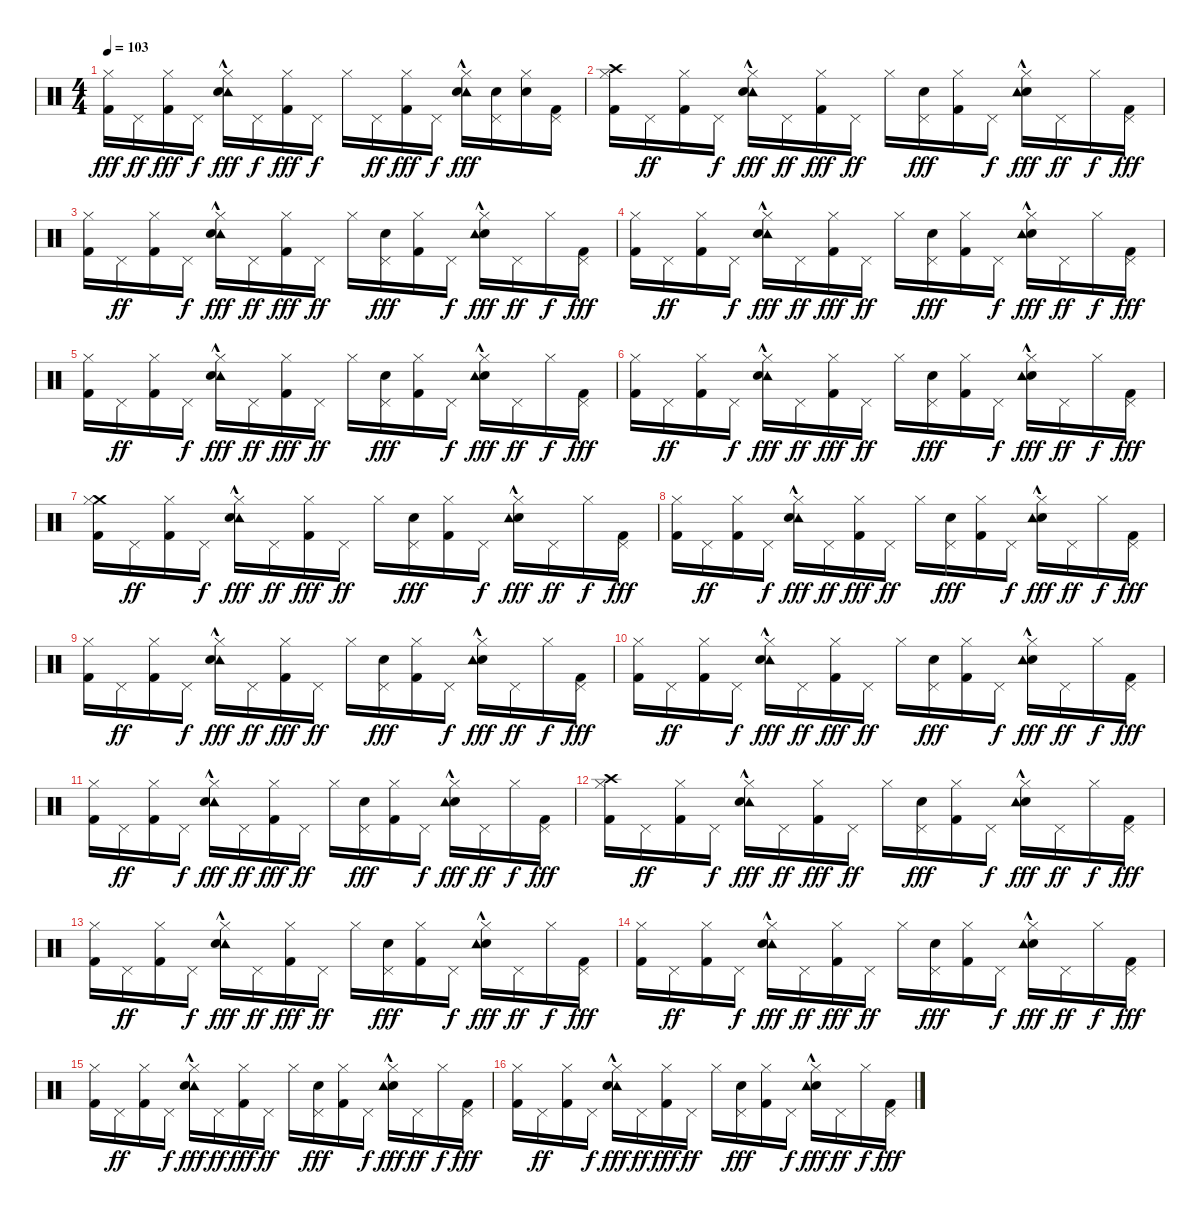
\track "" {instrument percussion}
\staff {score}
\articulation defaults
\ts (4 4)
\tempo 103
\clef neutral
\ks c
("Hi-Hat (closed)" "Kick (hit) 2").16{dy fff} "Pedal Hi-Hat (hit)".16{dy ff} ("Hi-Hat (closed)" "Kick (hit) 2").16{dy fff} "Pedal Hi-Hat (hit)".16{dy f} ("Tambourine (hit)"{hac} "Hi-Hat (closed)" "Electric Snare (hit)").16{dy fff} "Pedal Hi-Hat (hit)".16{dy f} ("Kick (hit) 2" "Hi-Hat (closed)").16{dy fff} "Pedal Hi-Hat (hit)".16{dy f} "Hi-Hat (closed)".16 "Pedal Hi-Hat (hit)".16{dy ff} ("Kick (hit) 2" "Hi-Hat (closed)").16{dy fff} "Pedal Hi-Hat (hit)".16{dy f} ("Tambourine (hit)"{hac} "Electric Snare (hit)" "Hi-Hat (closed)").16{dy fff} ("Pedal Hi-Hat (hit)" "Electric Snare (hit)").16 ("Hi-Hat (closed)" "Electric Snare (hit)").16 ("Kick (hit) 2" "Pedal Hi-Hat (hit)").16 |
("Crash high (hit)" "Kick (hit) 2" "Hi-Hat (closed)").16 "Pedal Hi-Hat (hit)".16{dy ff} ("Kick (hit) 2" "Hi-Hat (closed)").16 "Pedal Hi-Hat (hit)".16{dy f} ("Tambourine (hit)"{hac} "Hi-Hat (closed)" "Electric Snare (hit)").16{dy fff} "Pedal Hi-Hat (hit)".16{dy ff} ("Hi-Hat (closed)" "Kick (hit) 2").16{dy fff} "Pedal Hi-Hat (hit)".16{dy ff} "Hi-Hat (closed)".16 ("Pedal Hi-Hat (hit)" "Electric Snare (hit)").16{dy fff} ("Kick (hit) 2" "Hi-Hat (closed)").16 "Pedal Hi-Hat (hit)".16{dy f} ("Electric Snare (hit)" "Hi-Hat (closed)" "Tambourine (hit)"{hac}).16{dy fff} "Pedal Hi-Hat (hit)".16{dy ff} "Hi-Hat (closed)".16{dy f} ("Pedal Hi-Hat (hit)" "Kick (hit) 2").16{dy fff} |
("Kick (hit) 2" "Hi-Hat (closed)").16 "Pedal Hi-Hat (hit)".16{dy ff} ("Kick (hit) 2" "Hi-Hat (closed)").16 "Pedal Hi-Hat (hit)".16{dy f} ("Tambourine (hit)"{hac} "Hi-Hat (closed)" "Electric Snare (hit)").16{dy fff} "Pedal Hi-Hat (hit)".16{dy ff} ("Hi-Hat (closed)" "Kick (hit) 2").16{dy fff} "Pedal Hi-Hat (hit)".16{dy ff} "Hi-Hat (closed)".16 ("Pedal Hi-Hat (hit)" "Electric Snare (hit)").16{dy fff} ("Kick (hit) 2" "Hi-Hat (closed)").16 "Pedal Hi-Hat (hit)".16{dy f} ("Electric Snare (hit)" "Hi-Hat (closed)" "Tambourine (hit)"{hac}).16{dy fff} "Pedal Hi-Hat (hit)".16{dy ff} "Hi-Hat (closed)".16{dy f} ("Pedal Hi-Hat (hit)" "Kick (hit) 2").16{dy fff} |
("Kick (hit) 2" "Hi-Hat (closed)").16 "Pedal Hi-Hat (hit)".16{dy ff} ("Kick (hit) 2" "Hi-Hat (closed)").16 "Pedal Hi-Hat (hit)".16{dy f} ("Tambourine (hit)"{hac} "Hi-Hat (closed)" "Electric Snare (hit)").16{dy fff} "Pedal Hi-Hat (hit)".16{dy ff} ("Hi-Hat (closed)" "Kick (hit) 2").16{dy fff} "Pedal Hi-Hat (hit)".16{dy ff} "Hi-Hat (closed)".16 ("Pedal Hi-Hat (hit)" "Electric Snare (hit)").16{dy fff} ("Kick (hit) 2" "Hi-Hat (closed)").16 "Pedal Hi-Hat (hit)".16{dy f} ("Electric Snare (hit)" "Hi-Hat (closed)" "Tambourine (hit)"{hac}).16{dy fff} "Pedal Hi-Hat (hit)".16{dy ff} "Hi-Hat (closed)".16{dy f} ("Pedal Hi-Hat (hit)" "Kick (hit) 2").16{dy fff} |
("Kick (hit) 2" "Hi-Hat (closed)").16 "Pedal Hi-Hat (hit)".16{dy ff} ("Kick (hit) 2" "Hi-Hat (closed)").16 "Pedal Hi-Hat (hit)".16{dy f} ("Tambourine (hit)"{hac} "Hi-Hat (closed)" "Electric Snare (hit)").16{dy fff} "Pedal Hi-Hat (hit)".16{dy ff} ("Hi-Hat (closed)" "Kick (hit) 2").16{dy fff} "Pedal Hi-Hat (hit)".16{dy ff} "Hi-Hat (closed)".16 ("Pedal Hi-Hat (hit)" "Electric Snare (hit)").16{dy fff} ("Kick (hit) 2" "Hi-Hat (closed)").16 "Pedal Hi-Hat (hit)".16{dy f} ("Electric Snare (hit)" "Hi-Hat (closed)" "Tambourine (hit)"{hac}).16{dy fff} "Pedal Hi-Hat (hit)".16{dy ff} "Hi-Hat (closed)".16{dy f} ("Pedal Hi-Hat (hit)" "Kick (hit) 2").16{dy fff} |
("Kick (hit) 2" "Hi-Hat (closed)").16 "Pedal Hi-Hat (hit)".16{dy ff} ("Kick (hit) 2" "Hi-Hat (closed)").16 "Pedal Hi-Hat (hit)".16{dy f} ("Tambourine (hit)"{hac} "Hi-Hat (closed)" "Electric Snare (hit)").16{dy fff} "Pedal Hi-Hat (hit)".16{dy ff} ("Hi-Hat (closed)" "Kick (hit) 2").16{dy fff} "Pedal Hi-Hat (hit)".16{dy ff} "Hi-Hat (closed)".16 ("Pedal Hi-Hat (hit)" "Electric Snare (hit)").16{dy fff} ("Kick (hit) 2" "Hi-Hat (closed)").16 "Pedal Hi-Hat (hit)".16{dy f} ("Electric Snare (hit)" "Hi-Hat (closed)" "Tambourine (hit)"{hac}).16{dy fff} "Pedal Hi-Hat (hit)".16{dy ff} "Hi-Hat (closed)".16{dy f} ("Pedal Hi-Hat (hit)" "Kick (hit) 2").16{dy fff} |
("Crash medium (hit)" "Kick (hit) 2" "Hi-Hat (closed)").16 "Pedal Hi-Hat (hit)".16{dy ff} ("Kick (hit) 2" "Hi-Hat (closed)").16 "Pedal Hi-Hat (hit)".16{dy f} ("Tambourine (hit)"{hac} "Hi-Hat (closed)" "Electric Snare (hit)").16{dy fff} "Pedal Hi-Hat (hit)".16{dy ff} ("Hi-Hat (closed)" "Kick (hit) 2").16{dy fff} "Pedal Hi-Hat (hit)".16{dy ff} "Hi-Hat (closed)".16 ("Pedal Hi-Hat (hit)" "Electric Snare (hit)").16{dy fff} ("Kick (hit) 2" "Hi-Hat (closed)").16 "Pedal Hi-Hat (hit)".16{dy f} ("Electric Snare (hit)" "Hi-Hat (closed)" "Tambourine (hit)"{hac}).16{dy fff} "Pedal Hi-Hat (hit)".16{dy ff} "Hi-Hat (closed)".16{dy f} ("Pedal Hi-Hat (hit)" "Kick (hit) 2").16{dy fff} |
("Kick (hit) 2" "Hi-Hat (closed)").16 "Pedal Hi-Hat (hit)".16{dy ff} ("Kick (hit) 2" "Hi-Hat (closed)").16 "Pedal Hi-Hat (hit)".16{dy f} ("Tambourine (hit)"{hac} "Hi-Hat (closed)" "Electric Snare (hit)").16{dy fff} "Pedal Hi-Hat (hit)".16{dy ff} ("Hi-Hat (closed)" "Kick (hit) 2").16{dy fff} "Pedal Hi-Hat (hit)".16{dy ff} "Hi-Hat (closed)".16 ("Pedal Hi-Hat (hit)" "Electric Snare (hit)").16{dy fff} ("Kick (hit) 2" "Hi-Hat (closed)").16 "Pedal Hi-Hat (hit)".16{dy f} ("Electric Snare (hit)" "Hi-Hat (closed)" "Tambourine (hit)"{hac}).16{dy fff} "Pedal Hi-Hat (hit)".16{dy ff} "Hi-Hat (closed)".16{dy f} ("Pedal Hi-Hat (hit)" "Kick (hit) 2").16{dy fff} |
("Kick (hit) 2" "Hi-Hat (closed)").16 "Pedal Hi-Hat (hit)".16{dy ff} ("Kick (hit) 2" "Hi-Hat (closed)").16 "Pedal Hi-Hat (hit)".16{dy f} ("Tambourine (hit)"{hac} "Hi-Hat (closed)" "Electric Snare (hit)").16{dy fff} "Pedal Hi-Hat (hit)".16{dy ff} ("Hi-Hat (closed)" "Kick (hit) 2").16{dy fff} "Pedal Hi-Hat (hit)".16{dy ff} "Hi-Hat (closed)".16 ("Pedal Hi-Hat (hit)" "Electric Snare (hit)").16{dy fff} ("Kick (hit) 2" "Hi-Hat (closed)").16 "Pedal Hi-Hat (hit)".16{dy f} ("Electric Snare (hit)" "Hi-Hat (closed)" "Tambourine (hit)"{hac}).16{dy fff} "Pedal Hi-Hat (hit)".16{dy ff} "Hi-Hat (closed)".16{dy f} ("Pedal Hi-Hat (hit)" "Kick (hit) 2").16{dy fff} |
("Kick (hit) 2" "Hi-Hat (closed)").16 "Pedal Hi-Hat (hit)".16{dy ff} ("Kick (hit) 2" "Hi-Hat (closed)").16 "Pedal Hi-Hat (hit)".16{dy f} ("Tambourine (hit)"{hac} "Hi-Hat (closed)" "Electric Snare (hit)").16{dy fff} "Pedal Hi-Hat (hit)".16{dy ff} ("Hi-Hat (closed)" "Kick (hit) 2").16{dy fff} "Pedal Hi-Hat (hit)".16{dy ff} "Hi-Hat (closed)".16 ("Pedal Hi-Hat (hit)" "Electric Snare (hit)").16{dy fff} ("Kick (hit) 2" "Hi-Hat (closed)").16 "Pedal Hi-Hat (hit)".16{dy f} ("Electric Snare (hit)" "Hi-Hat (closed)" "Tambourine (hit)"{hac}).16{dy fff} "Pedal Hi-Hat (hit)".16{dy ff} "Hi-Hat (closed)".16{dy f} ("Pedal Hi-Hat (hit)" "Kick (hit) 2").16{dy fff} |
("Kick (hit) 2" "Hi-Hat (closed)").16 "Pedal Hi-Hat (hit)".16{dy ff} ("Kick (hit) 2" "Hi-Hat (closed)").16 "Pedal Hi-Hat (hit)".16{dy f} ("Tambourine (hit)"{hac} "Hi-Hat (closed)" "Electric Snare (hit)").16{dy fff} "Pedal Hi-Hat (hit)".16{dy ff} ("Hi-Hat (closed)" "Kick (hit) 2").16{dy fff} "Pedal Hi-Hat (hit)".16{dy ff} "Hi-Hat (closed)".16 ("Pedal Hi-Hat (hit)" "Electric Snare (hit)").16{dy fff} ("Kick (hit) 2" "Hi-Hat (closed)").16 "Pedal Hi-Hat (hit)".16{dy f} ("Electric Snare (hit)" "Hi-Hat (closed)" "Tambourine (hit)"{hac}).16{dy fff} "Pedal Hi-Hat (hit)".16{dy ff} "Hi-Hat (closed)".16{dy f} ("Pedal Hi-Hat (hit)" "Kick (hit) 2").16{dy fff} |
("Crash high (hit)" "Kick (hit) 2" "Hi-Hat (closed)").16 "Pedal Hi-Hat (hit)".16{dy ff} ("Kick (hit) 2" "Hi-Hat (closed)").16 "Pedal Hi-Hat (hit)".16{dy f} ("Tambourine (hit)"{hac} "Hi-Hat (closed)" "Electric Snare (hit)").16{dy fff} "Pedal Hi-Hat (hit)".16{dy ff} ("Hi-Hat (closed)" "Kick (hit) 2").16{dy fff} "Pedal Hi-Hat (hit)".16{dy ff} "Hi-Hat (closed)".16 ("Pedal Hi-Hat (hit)" "Electric Snare (hit)").16{dy fff} ("Kick (hit) 2" "Hi-Hat (closed)").16 "Pedal Hi-Hat (hit)".16{dy f} ("Electric Snare (hit)" "Hi-Hat (closed)" "Tambourine (hit)"{hac}).16{dy fff} "Pedal Hi-Hat (hit)".16{dy ff} "Hi-Hat (closed)".16{dy f} ("Pedal Hi-Hat (hit)" "Kick (hit) 2").16{dy fff} |
("Kick (hit) 2" "Hi-Hat (closed)").16 "Pedal Hi-Hat (hit)".16{dy ff} ("Kick (hit) 2" "Hi-Hat (closed)").16 "Pedal Hi-Hat (hit)".16{dy f} ("Tambourine (hit)"{hac} "Hi-Hat (closed)" "Electric Snare (hit)").16{dy fff} "Pedal Hi-Hat (hit)".16{dy ff} ("Hi-Hat (closed)" "Kick (hit) 2").16{dy fff} "Pedal Hi-Hat (hit)".16{dy ff} "Hi-Hat (closed)".16 ("Pedal Hi-Hat (hit)" "Electric Snare (hit)").16{dy fff} ("Kick (hit) 2" "Hi-Hat (closed)").16 "Pedal Hi-Hat (hit)".16{dy f} ("Electric Snare (hit)" "Hi-Hat (closed)" "Tambourine (hit)"{hac}).16{dy fff} "Pedal Hi-Hat (hit)".16{dy ff} "Hi-Hat (closed)".16{dy f} ("Pedal Hi-Hat (hit)" "Kick (hit) 2").16{dy fff} |
("Kick (hit) 2" "Hi-Hat (closed)").16 "Pedal Hi-Hat (hit)".16{dy ff} ("Kick (hit) 2" "Hi-Hat (closed)").16 "Pedal Hi-Hat (hit)".16{dy f} ("Tambourine (hit)"{hac} "Hi-Hat (closed)" "Electric Snare (hit)").16{dy fff} "Pedal Hi-Hat (hit)".16{dy ff} ("Hi-Hat (closed)" "Kick (hit) 2").16{dy fff} "Pedal Hi-Hat (hit)".16{dy ff} "Hi-Hat (closed)".16 ("Pedal Hi-Hat (hit)" "Electric Snare (hit)").16{dy fff} ("Kick (hit) 2" "Hi-Hat (closed)").16 "Pedal Hi-Hat (hit)".16{dy f} ("Electric Snare (hit)" "Hi-Hat (closed)" "Tambourine (hit)"{hac}).16{dy fff} "Pedal Hi-Hat (hit)".16{dy ff} "Hi-Hat (closed)".16{dy f} ("Pedal Hi-Hat (hit)" "Kick (hit) 2").16{dy fff} |
("Kick (hit) 2" "Hi-Hat (closed)").16 "Pedal Hi-Hat (hit)".16{dy ff} ("Kick (hit) 2" "Hi-Hat (closed)").16 "Pedal Hi-Hat (hit)".16{dy f} ("Tambourine (hit)"{hac} "Hi-Hat (closed)" "Electric Snare (hit)").16{dy fff} "Pedal Hi-Hat (hit)".16{dy ff} ("Hi-Hat (closed)" "Kick (hit) 2").16{dy fff} "Pedal Hi-Hat (hit)".16{dy ff} "Hi-Hat (closed)".16 ("Pedal Hi-Hat (hit)" "Electric Snare (hit)").16{dy fff} ("Kick (hit) 2" "Hi-Hat (closed)").16 "Pedal Hi-Hat (hit)".16{dy f} ("Electric Snare (hit)" "Hi-Hat (closed)" "Tambourine (hit)"{hac}).16{dy fff} "Pedal Hi-Hat (hit)".16{dy ff} "Hi-Hat (closed)".16{dy f} ("Pedal Hi-Hat (hit)" "Kick (hit) 2").16{dy fff} |
("Kick (hit) 2" "Hi-Hat (closed)").16 "Pedal Hi-Hat (hit)".16{dy ff} ("Kick (hit) 2" "Hi-Hat (closed)").16 "Pedal Hi-Hat (hit)".16{dy f} ("Tambourine (hit)"{hac} "Hi-Hat (closed)" "Electric Snare (hit)").16{dy fff} "Pedal Hi-Hat (hit)".16{dy ff} ("Hi-Hat (closed)" "Kick (hit) 2").16{dy fff} "Pedal Hi-Hat (hit)".16{dy ff} "Hi-Hat (closed)".16 ("Pedal Hi-Hat (hit)" "Electric Snare (hit)").16{dy fff} ("Kick (hit) 2" "Hi-Hat (closed)").16 "Pedal Hi-Hat (hit)".16{dy f} ("Electric Snare (hit)" "Hi-Hat (closed)" "Tambourine (hit)"{hac}).16{dy fff} "Pedal Hi-Hat (hit)".16{dy ff} "Hi-Hat (closed)".16{dy f} ("Pedal Hi-Hat (hit)" "Kick (hit) 2").16{dy fff}
